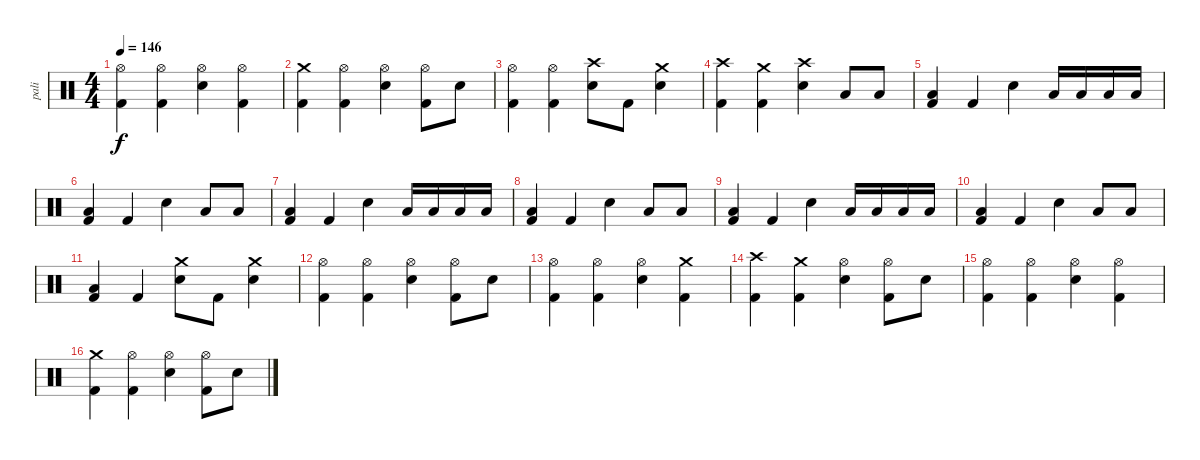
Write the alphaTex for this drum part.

\track ("pali" "pali") {instrument percussion}
\staff {score}
\articulation defaults
\ts (4 4)
\tempo 146
\clef neutral
\ks c
("Kick (hit) 2" "Hi-Hat (open)").4{dy f} ("Kick (hit) 2" "Hi-Hat (open)").4 ("Electric Snare (hit)" "Hi-Hat (open)").4 ("Kick (hit) 2" "Hi-Hat (open)").4 |
("Kick (hit) 2" "Crash medium (hit)").4 ("Kick (hit) 2" "Hi-Hat (open)").4 ("Electric Snare (hit)" "Hi-Hat (open)").4 ("Kick (hit) 2" "Hi-Hat (open)").8 "Electric Snare (hit)".8 |
("Kick (hit) 2" "Hi-Hat (open)").4 ("Kick (hit) 2" "Hi-Hat (open)").4 ("Electric Snare (hit)" "Crash high (hit)").8 "Kick (hit) 2".8 ("Electric Snare (hit)" "Crash medium (hit)").4 |
("Kick (hit) 2" "Crash high (hit)").4 ("Kick (hit) 2" "Crash medium (hit)").4 ("Electric Snare (hit)" "Crash high (hit)").4 "Low Tom (hit)".8 "Low Tom (hit)".8 |
("Kick (hit) 2" "Low Floor Tom (hit)").4 "Kick (hit) 2".4 "Electric Snare (hit)".4 "Low Tom (hit)".16 "Low Tom (hit)".16 "Low Tom (hit)".16 "Low Tom (hit)".16 |
("Kick (hit) 2" "Low Floor Tom (hit)").4 "Kick (hit) 2".4 "Electric Snare (hit)".4 "Low Tom (hit)".8 "Low Tom (hit)".8 |
("Kick (hit) 2" "Low Floor Tom (hit)").4 "Kick (hit) 2".4 "Electric Snare (hit)".4 "Low Tom (hit)".16 "Low Tom (hit)".16 "Low Tom (hit)".16 "Low Tom (hit)".16 |
("Kick (hit) 2" "Low Floor Tom (hit)").4 "Kick (hit) 2".4 "Electric Snare (hit)".4 "Low Tom (hit)".8 "Low Tom (hit)".8 |
("Kick (hit) 2" "Low Floor Tom (hit)").4 "Kick (hit) 2".4 "Electric Snare (hit)".4 "Low Tom (hit)".16 "Low Tom (hit)".16 "Low Tom (hit)".16 "Low Tom (hit)".16 |
("Kick (hit) 2" "Low Floor Tom (hit)").4 "Kick (hit) 2".4 "Electric Snare (hit)".4 "Low Tom (hit)".8 "Low Tom (hit)".8 |
("Kick (hit) 2" "Low Floor Tom (hit)").4 "Kick (hit) 2".4 ("Electric Snare (hit)" "Crash medium (hit)").8 "Kick (hit) 2".8 ("Electric Snare (hit)" "Crash medium (hit)").4 |
("Kick (hit) 2" "Hi-Hat (open)").4 ("Kick (hit) 2" "Hi-Hat (open)").4 ("Electric Snare (hit)" "Hi-Hat (open)").4 ("Kick (hit) 2" "Hi-Hat (open)").8 "Electric Snare (hit)".8 |
("Kick (hit) 2" "Hi-Hat (open)").4 ("Kick (hit) 2" "Hi-Hat (open)").4 ("Electric Snare (hit)" "Hi-Hat (open)").4 ("Kick (hit) 2" "Crash medium (hit)").4 |
("Kick (hit) 2" "Crash high (hit)").4 ("Kick (hit) 2" "Crash medium (hit)").4 ("Electric Snare (hit)" "Hi-Hat (open)").4 ("Kick (hit) 2" "Hi-Hat (open)").8 "Electric Snare (hit)".8 |
("Kick (hit) 2" "Hi-Hat (open)").4 ("Kick (hit) 2" "Hi-Hat (open)").4 ("Electric Snare (hit)" "Hi-Hat (open)").4 ("Kick (hit) 2" "Hi-Hat (open)").4 |
("Kick (hit) 2" "Crash medium (hit)").4 ("Kick (hit) 2" "Hi-Hat (open)").4 ("Electric Snare (hit)" "Hi-Hat (open)").4 ("Kick (hit) 2" "Hi-Hat (open)").8 "Electric Snare (hit)".8
